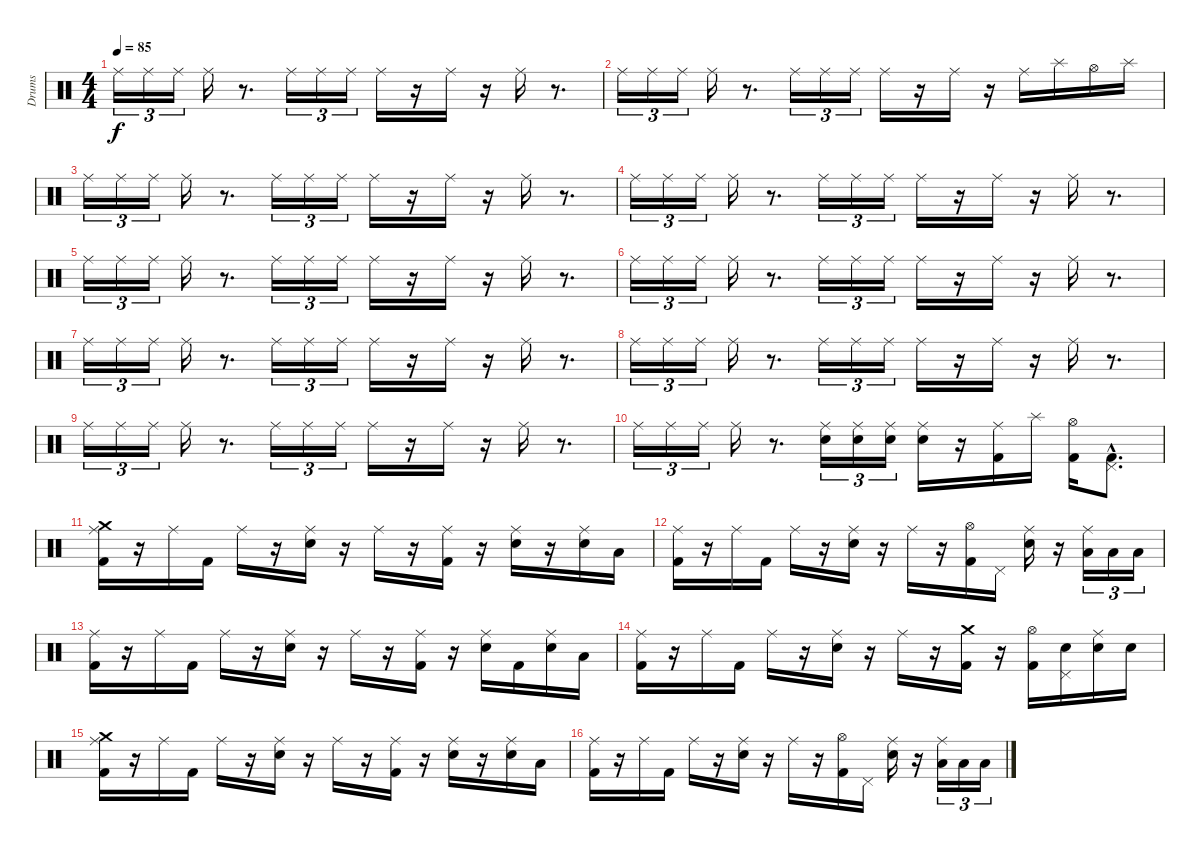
\track ("Drums" "Drums") {instrument percussion}
\staff {score}
\articulation defaults
\ts (4 4)
\tempo 85
\clef neutral
\ks c "Ride (middle)".16{tu (3 2) dy f} "Ride (middle)".16{tu (3 2)} "Ride (middle)".16{tu (3 2)} "Ride (middle)".16
r.8{d} "Ride (middle)".16{tu (3 2)} "Ride (middle)".16{tu (3 2)} "Ride (middle)".16{tu (3 2)} "Ride (middle)".16 r.16 "Ride (middle)".16 r.16 "Ride (middle)".16 r.8{d} |
"Ride (middle)".16{tu (3 2)} "Ride (middle)".16{tu (3 2)} "Ride (middle)".16{tu (3 2)} "Ride (middle)".16 r.8{d} "Ride (middle)".16{tu (3 2)} "Ride (middle)".16{tu (3 2)} "Ride (middle)".16{tu (3 2)} "Ride (middle)".16 r.16 "Ride (middle)".16 r.16 "Ride (middle)".16 "Splash (hit)".16 "Hi-Hat (open)".16 "Splash (hit)".16 |
"Ride (middle)".16{tu (3 2)} "Ride (middle)".16{tu (3 2)} "Ride (middle)".16{tu (3 2)} "Ride (middle)".16 r.8{d} "Ride (middle)".16{tu (3 2)} "Ride (middle)".16{tu (3 2)} "Ride (middle)".16{tu (3 2)} "Ride (middle)".16 r.16 "Ride (middle)".16 r.16 "Ride (middle)".16 r.8{d} |
"Ride (middle)".16{tu (3 2)} "Ride (middle)".16{tu (3 2)} "Ride (middle)".16{tu (3 2)} "Ride (middle)".16 r.8{d} "Ride (middle)".16{tu (3 2)} "Ride (middle)".16{tu (3 2)} "Ride (middle)".16{tu (3 2)} "Ride (middle)".16 r.16 "Ride (middle)".16 r.16 "Ride (middle)".16 r.8{d} |
"Ride (middle)".16{tu (3 2)} "Ride (middle)".16{tu (3 2)} "Ride (middle)".16{tu (3 2)} "Ride (middle)".16 r.8{d} "Ride (middle)".16{tu (3 2)} "Ride (middle)".16{tu (3 2)} "Ride (middle)".16{tu (3 2)} "Ride (middle)".16 r.16 "Ride (middle)".16 r.16 "Ride (middle)".16 r.8{d} |
"Ride (middle)".16{tu (3 2)} "Ride (middle)".16{tu (3 2)} "Ride (middle)".16{tu (3 2)} "Ride (middle)".16 r.8{d} "Ride (middle)".16{tu (3 2)} "Ride (middle)".16{tu (3 2)} "Ride (middle)".16{tu (3 2)} "Ride (middle)".16 r.16 "Ride (middle)".16 r.16 "Ride (middle)".16 r.8{d} |
"Ride (middle)".16{tu (3 2)} "Ride (middle)".16{tu (3 2)} "Ride (middle)".16{tu (3 2)} "Ride (middle)".16 r.8{d} "Ride (middle)".16{tu (3 2)} "Ride (middle)".16{tu (3 2)} "Ride (middle)".16{tu (3 2)} "Ride (middle)".16 r.16 "Ride (middle)".16 r.16 "Ride (middle)".16 r.8{d} |
"Ride (middle)".16{tu (3 2)} "Ride (middle)".16{tu (3 2)} "Ride (middle)".16{tu (3 2)} "Ride (middle)".16 r.8{d} "Ride (middle)".16{tu (3 2)} "Ride (middle)".16{tu (3 2)} "Ride (middle)".16{tu (3 2)} "Ride (middle)".16 r.16 "Ride (middle)".16 r.16 "Ride (middle)".16 r.8{d} |
"Ride (middle)".16{tu (3 2)} "Ride (middle)".16{tu (3 2)} "Ride (middle)".16{tu (3 2)} "Ride (middle)".16 r.8{d} "Ride (middle)".16{tu (3 2)} "Ride (middle)".16{tu (3 2)} "Ride (middle)".16{tu (3 2)} "Ride (middle)".16 r.16 "Ride (middle)".16 r.16 "Ride (middle)".16 r.8{d} |
"Ride (middle)".16{tu (3 2)} "Ride (middle)".16{tu (3 2)} "Ride (middle)".16{tu (3 2)} "Ride (middle)".16 r.8{d} ("Ride (middle)" "Electric Snare (hit)").16{tu (3 2)} ("Ride (middle)" "Electric Snare (hit)").16{tu (3 2)} ("Ride (middle)" "Electric Snare (hit)").16{tu (3 2)} ("Ride (middle)" "Electric Snare (hit)").16 r.16 ("Ride (middle)" "Kick (hit) 2").16 "Splash (hit)".16 ("Hi-Hat (open)" "Kick (hit) 2").16 ("Pedal Hi-Hat (hit)"{hac} "Kick (hit) 2"{hac}).8{d} |
("Crash medium (hit)" "Ride (middle)" "Kick (hit) 2").16 r.16 "Ride (middle)".16 "Kick (hit) 2".16 "Ride (middle)".16 r.16 ("Ride (middle)" "Electric Snare (hit)").16 r.16 "Ride (middle)".16 r.16 ("Ride (middle)" "Kick (hit) 2").16 r.16 ("Ride (middle)" "Electric Snare (hit)").16 r.16 ("Ride (middle)" "Electric Snare (hit)").16 "Low Tom (hit)".16 |
("Ride (middle)" "Kick (hit) 2").16 r.16 "Ride (middle)".16 "Kick (hit) 2".16 "Ride (middle)".16 r.16 ("Ride (middle)" "Electric Snare (hit)").16 r.16 "Ride (middle)".16 r.16 ("Hi-Hat (open)" "Kick (hit) 2").16 "Pedal Hi-Hat (hit)".16 ("Ride (middle)" "Electric Snare (hit)").16 r.16 ("Ride (middle)" "Low Tom (hit)").16{tu (3 2)} "Low Tom (hit)".16{tu (3 2)} "Low Tom (hit)".16{tu (3 2)} |
("Ride (middle)" "Kick (hit) 2").16 r.16 "Ride (middle)".16 "Kick (hit) 2".16 "Ride (middle)".16 r.16 ("Ride (middle)" "Electric Snare (hit)").16 r.16 "Ride (middle)".16 r.16 ("Ride (middle)" "Kick (hit) 2").16 r.16 ("Ride (middle)" "Electric Snare (hit)").16 "Kick (hit) 2".16 ("Ride (middle)" "Electric Snare (hit)").16 "Low Tom (hit)".16 |
("Ride (middle)" "Kick (hit) 2").16 r.16 "Ride (middle)".16 "Kick (hit) 2".16 "Ride (middle)".16 r.16 ("Ride (middle)" "Electric Snare (hit)").16 r.16 "Ride (middle)".16 r.16 ("Crash medium (hit)" "Kick (hit) 2").16 r.16 ("Hi-Hat (open)" "Kick (hit) 2").16 ("Pedal Hi-Hat (hit)" "Electric Snare (hit)").16 ("Ride (middle)" "Electric Snare (hit)").16 "Electric Snare (hit)".16 |
("Crash medium (hit)" "Ride (middle)" "Kick (hit) 2").16 r.16 "Ride (middle)".16 "Kick (hit) 2".16 "Ride (middle)".16 r.16 ("Ride (middle)" "Electric Snare (hit)").16 r.16 "Ride (middle)".16 r.16 ("Ride (middle)" "Kick (hit) 2").16 r.16 ("Ride (middle)" "Electric Snare (hit)").16 r.16 ("Ride (middle)" "Electric Snare (hit)").16 "Low Tom (hit)".16 |
("Ride (middle)" "Kick (hit) 2").16 r.16 "Ride (middle)".16 "Kick (hit) 2".16 "Ride (middle)".16 r.16 ("Ride (middle)" "Electric Snare (hit)").16 r.16 "Ride (middle)".16 r.16 ("Hi-Hat (open)" "Kick (hit) 2").16 "Pedal Hi-Hat (hit)".16 ("Ride (middle)" "Electric Snare (hit)").16 r.16 ("Ride (middle)" "Low Tom (hit)").16{tu (3 2)} "Low Tom (hit)".16{tu (3 2)} "Low Tom (hit)".16{tu (3 2)}
